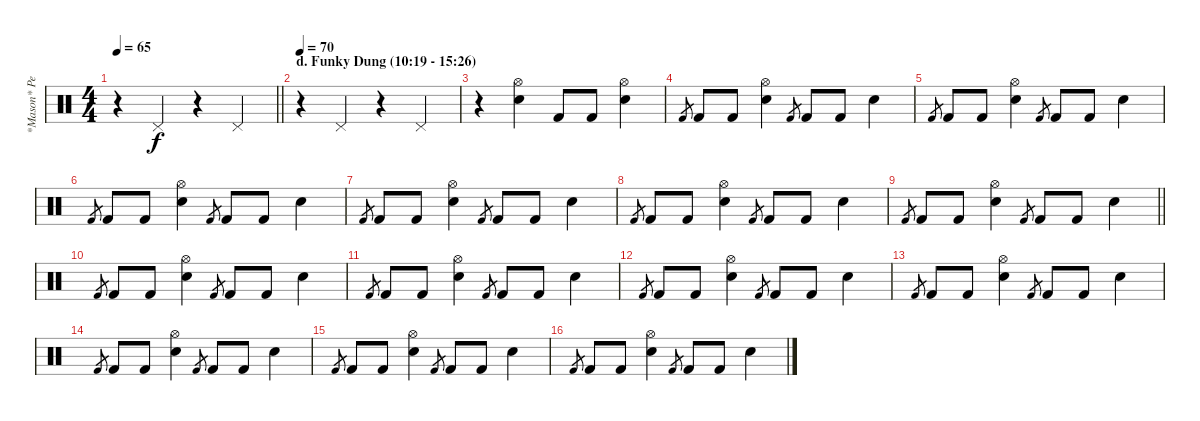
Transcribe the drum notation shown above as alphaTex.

\track ("*Mason* Percussion" "*Mason* Pe") {instrument percussion}
\staff {score}
\articulation defaults
\ts (4 4)
\tempo 65
\clef neutral
\barLineRight lightlight
\ks c
r.4{dy f} "Pedal Hi-Hat (hit)".4 r.4 "Pedal Hi-Hat (hit)".4 |
\section ("" "d. Funky Dung (10:19 - 15:26)")
\tempo 70
r.4 "Pedal Hi-Hat (hit)".4 r.4 "Pedal Hi-Hat (hit)".4 |
r.4 ("Hi-Hat (open)" "Snare (hit) 2").4 "Kick (hit) 2".8 "Kick (hit) 2".8 ("Hi-Hat (open)" "Snare (hit) 2").4 |
"Kick (hit) 2".8{gr} "Kick (hit) 2".8 "Kick (hit) 2".8 ("Hi-Hat (open)" "Snare (hit) 2").4 "Kick (hit) 2".8{gr} "Kick (hit) 2".8 "Kick (hit) 2".8 "Snare (hit) 2".4 |
"Kick (hit) 2".8{gr} "Kick (hit) 2".8 "Kick (hit) 2".8 ("Hi-Hat (open)" "Snare (hit) 2").4 "Kick (hit) 2".8{gr} "Kick (hit) 2".8 "Kick (hit) 2".8 "Snare (hit) 2".4 |
"Kick (hit) 2".8{gr} "Kick (hit) 2".8 "Kick (hit) 2".8 ("Hi-Hat (open)" "Snare (hit) 2").4 "Kick (hit) 2".8{gr} "Kick (hit) 2".8 "Kick (hit) 2".8 "Snare (hit) 2".4 |
"Kick (hit) 2".8{gr} "Kick (hit) 2".8 "Kick (hit) 2".8 ("Hi-Hat (open)" "Snare (hit) 2").4 "Kick (hit) 2".8{gr} "Kick (hit) 2".8 "Kick (hit) 2".8 "Snare (hit) 2".4 |
"Kick (hit) 2".8{gr} "Kick (hit) 2".8 "Kick (hit) 2".8 ("Hi-Hat (open)" "Snare (hit) 2").4 "Kick (hit) 2".8{gr} "Kick (hit) 2".8 "Kick (hit) 2".8 "Snare (hit) 2".4 |
\barLineRight lightlight "Kick (hit) 2".8{gr} "Kick (hit) 2".8 "Kick (hit) 2".8
("Hi-Hat (open)" "Snare (hit) 2").4 "Kick (hit) 2".8{gr} "Kick (hit) 2".8 "Kick (hit) 2".8 "Snare (hit) 2".4 |
"Kick (hit) 2".8{gr} "Kick (hit) 2".8 "Kick (hit) 2".8 ("Hi-Hat (open)" "Snare (hit) 2").4 "Kick (hit) 2".8{gr} "Kick (hit) 2".8 "Kick (hit) 2".8 "Snare (hit) 2".4 |
"Kick (hit) 2".8{gr} "Kick (hit) 2".8 "Kick (hit) 2".8 ("Hi-Hat (open)" "Snare (hit) 2").4 "Kick (hit) 2".8{gr} "Kick (hit) 2".8 "Kick (hit) 2".8 "Snare (hit) 2".4 |
"Kick (hit) 2".8{gr} "Kick (hit) 2".8 "Kick (hit) 2".8 ("Hi-Hat (open)" "Snare (hit) 2").4 "Kick (hit) 2".8{gr} "Kick (hit) 2".8 "Kick (hit) 2".8 "Snare (hit) 2".4 |
"Kick (hit) 2".8{gr} "Kick (hit) 2".8 "Kick (hit) 2".8 ("Hi-Hat (open)" "Snare (hit) 2").4 "Kick (hit) 2".8{gr} "Kick (hit) 2".8 "Kick (hit) 2".8 "Snare (hit) 2".4 |
"Kick (hit) 2".8{gr} "Kick (hit) 2".8 "Kick (hit) 2".8 ("Hi-Hat (open)" "Snare (hit) 2").4 "Kick (hit) 2".8{gr} "Kick (hit) 2".8 "Kick (hit) 2".8 "Snare (hit) 2".4 |
"Kick (hit) 2".8{gr} "Kick (hit) 2".8 "Kick (hit) 2".8 ("Hi-Hat (open)" "Snare (hit) 2").4 "Kick (hit) 2".8{gr} "Kick (hit) 2".8 "Kick (hit) 2".8 "Snare (hit) 2".4 |
"Kick (hit) 2".8{gr} "Kick (hit) 2".8 "Kick (hit) 2".8 ("Hi-Hat (open)" "Snare (hit) 2").4 "Kick (hit) 2".8{gr} "Kick (hit) 2".8 "Kick (hit) 2".8 "Snare (hit) 2".4
